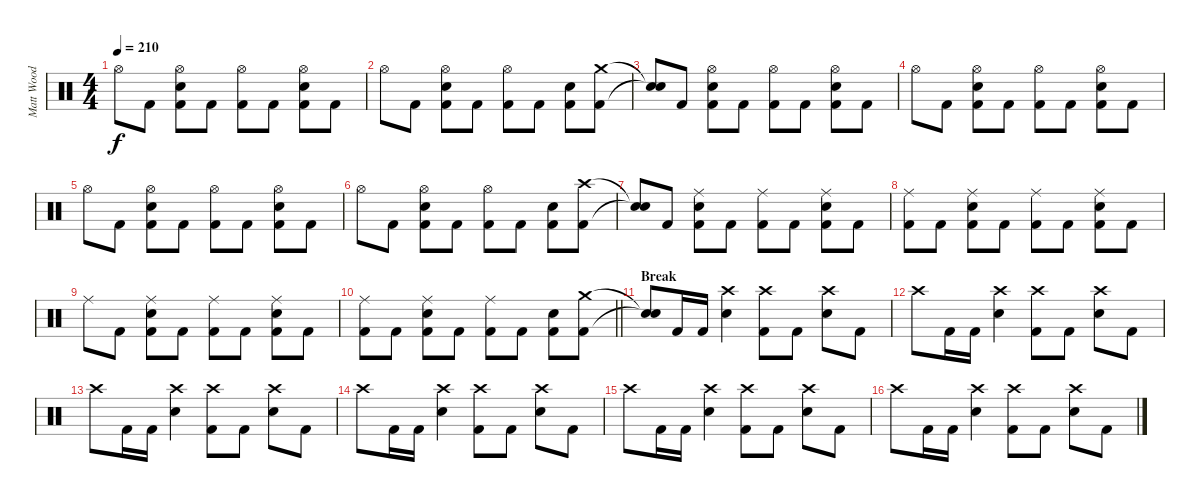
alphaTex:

\track ("Matt Wood" "Matt Wood") {instrument percussion}
\staff {score}
\articulation defaults
\ts (4 4)
\tempo 210
\clef neutral
\ks c "Hi-Hat (open)".8{dy f} "Kick (hit) 2".8
("Hi-Hat (open)" "Snare (hit) 2" "Kick (hit) 2").8 "Kick (hit) 2".8 ("Hi-Hat (open)" "Kick (hit) 2").8 "Kick (hit) 2".8 ("Hi-Hat (open)" "Snare (hit) 2" "Kick (hit) 2").8 "Kick (hit) 2".8 |
"Hi-Hat (open)".8 "Kick (hit) 2".8 ("Hi-Hat (open)" "Snare (hit) 2" "Kick (hit) 2").8 "Kick (hit) 2".8 ("Hi-Hat (open)" "Kick (hit) 2").8 "Kick (hit) 2".8 ("Snare (hit) 2" "Kick (hit) 2").8 ("Crash medium (hit)" "Kick (hit) 2").8 |
("Snare (hit)"{t} "Snare (hit)"{t}).8 "Kick (hit) 2".8 ("Hi-Hat (open)" "Snare (hit) 2" "Kick (hit) 2").8 "Kick (hit) 2".8 ("Hi-Hat (open)" "Kick (hit) 2").8 "Kick (hit) 2".8 ("Hi-Hat (open)" "Snare (hit) 2" "Kick (hit) 2").8 "Kick (hit) 2".8 |
"Hi-Hat (open)".8 "Kick (hit) 2".8 ("Hi-Hat (open)" "Snare (hit) 2" "Kick (hit) 2").8 "Kick (hit) 2".8 ("Hi-Hat (open)" "Kick (hit) 2").8 "Kick (hit) 2".8 ("Hi-Hat (open)" "Snare (hit) 2" "Kick (hit) 2").8 "Kick (hit) 2".8 |
"Hi-Hat (open)".8 "Kick (hit) 2".8 ("Hi-Hat (open)" "Snare (hit) 2" "Kick (hit) 2").8 "Kick (hit) 2".8 ("Hi-Hat (open)" "Kick (hit) 2").8 "Kick (hit) 2".8 ("Hi-Hat (open)" "Snare (hit) 2" "Kick (hit) 2").8 "Kick (hit) 2".8 |
"Hi-Hat (open)".8 "Kick (hit) 2".8 ("Hi-Hat (open)" "Snare (hit) 2" "Kick (hit) 2").8 "Kick (hit) 2".8 ("Hi-Hat (open)" "Kick (hit) 2").8 "Kick (hit) 2".8 ("Snare (hit) 2" "Kick (hit) 2").8 ("Crash high (hit)" "Kick (hit) 2").8 |
("Snare (hit)"{t} "Snare (hit)"{t}).8 "Kick (hit) 2".8 ("Ride (middle)" "Snare (hit) 2" "Kick (hit) 2").8 "Kick (hit) 2".8 ("Ride (middle)" "Kick (hit) 2").8 "Kick (hit) 2".8 ("Ride (middle)" "Snare (hit) 2" "Kick (hit) 2").8 "Kick (hit) 2".8 |
("Ride (middle)" "Kick (hit) 2").8 "Kick (hit) 2".8 ("Ride (middle)" "Snare (hit) 2" "Kick (hit) 2").8 "Kick (hit) 2".8 ("Ride (middle)" "Kick (hit) 2").8 "Kick (hit) 2".8 ("Ride (middle)" "Snare (hit) 2" "Kick (hit) 2").8 "Kick (hit) 2".8 |
"Ride (middle)".8 "Kick (hit) 2".8 ("Ride (middle)" "Snare (hit) 2" "Kick (hit) 2").8 "Kick (hit) 2".8 ("Ride (middle)" "Kick (hit) 2").8 "Kick (hit) 2".8 ("Ride (middle)" "Snare (hit) 2" "Kick (hit) 2").8 "Kick (hit) 2".8 |
\barLineRight lightlight
("Ride (middle)" "Kick (hit) 2").8 "Kick (hit) 2".8 ("Ride (middle)" "Snare (hit) 2" "Kick (hit) 2").8 "Kick (hit) 2".8 ("Ride (middle)" "Kick (hit) 2").8 "Kick (hit) 2".8 ("Snare (hit) 2" "Kick (hit) 2").8 ("Crash medium (hit)" "Kick (hit) 2").8 |
\section ("" "Break")
("Snare (hit)"{t} "Snare (hit)"{t}).8 "Kick (hit) 2".16 "Kick (hit) 2".16 ("Crash high (hit)" "Snare (hit) 2").4 ("Crash high (hit)" "Kick (hit) 2").8 "Kick (hit) 2".8 ("Crash high (hit)" "Snare (hit) 2").8 "Kick (hit) 2".8 |
"Crash high (hit)".8 "Kick (hit) 2".16 "Kick (hit) 2".16 ("Crash high (hit)" "Snare (hit) 2").4 ("Crash high (hit)" "Kick (hit) 2").8 "Kick (hit) 2".8 ("Crash high (hit)" "Snare (hit) 2").8 "Kick (hit) 2".8 |
"Crash high (hit)".8 "Kick (hit) 2".16 "Kick (hit) 2".16 ("Crash high (hit)" "Snare (hit) 2").4 ("Crash high (hit)" "Kick (hit) 2").8 "Kick (hit) 2".8 ("Crash high (hit)" "Snare (hit) 2").8 "Kick (hit) 2".8 |
"Crash high (hit)".8 "Kick (hit) 2".16 "Kick (hit) 2".16 ("Crash high (hit)" "Snare (hit) 2").4 ("Crash high (hit)" "Kick (hit) 2").8 "Kick (hit) 2".8 ("Crash high (hit)" "Snare (hit) 2").8 "Kick (hit) 2".8 |
"Crash high (hit)".8 "Kick (hit) 2".16 "Kick (hit) 2".16 ("Crash high (hit)" "Snare (hit) 2").4 ("Crash high (hit)" "Kick (hit) 2").8 "Kick (hit) 2".8 ("Crash high (hit)" "Snare (hit) 2").8 "Kick (hit) 2".8 |
"Crash high (hit)".8 "Kick (hit) 2".16 "Kick (hit) 2".16 ("Crash high (hit)" "Snare (hit) 2").4 ("Crash high (hit)" "Kick (hit) 2").8 "Kick (hit) 2".8 ("Crash high (hit)" "Snare (hit) 2").8 "Kick (hit) 2".8
